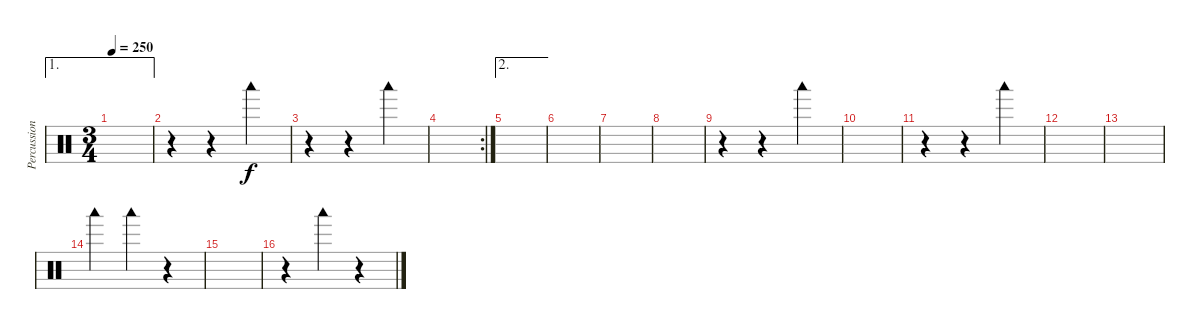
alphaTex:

\track ("Percussion" "Percussion") {instrument percussion}
\staff {score}
\articulation defaults
\ae 1
\ts (3 4)
\tempo 250
\clef neutral
\ks c
|
r.4 r.4 "Woodblock low (hit)".4 |
r.4 r.4 "Woodblock low (hit)".4 |
\rc 2
|
\ae 2
|
|
|
|
r.4 r.4 "Woodblock low (hit)".4 |
|
r.4 r.4 "Woodblock low (hit)".4 |
|
|
"Woodblock low (hit)".4 "Woodblock low (hit)".4 r.4 |
|
r.4 "Woodblock low (hit)".4 r.4
